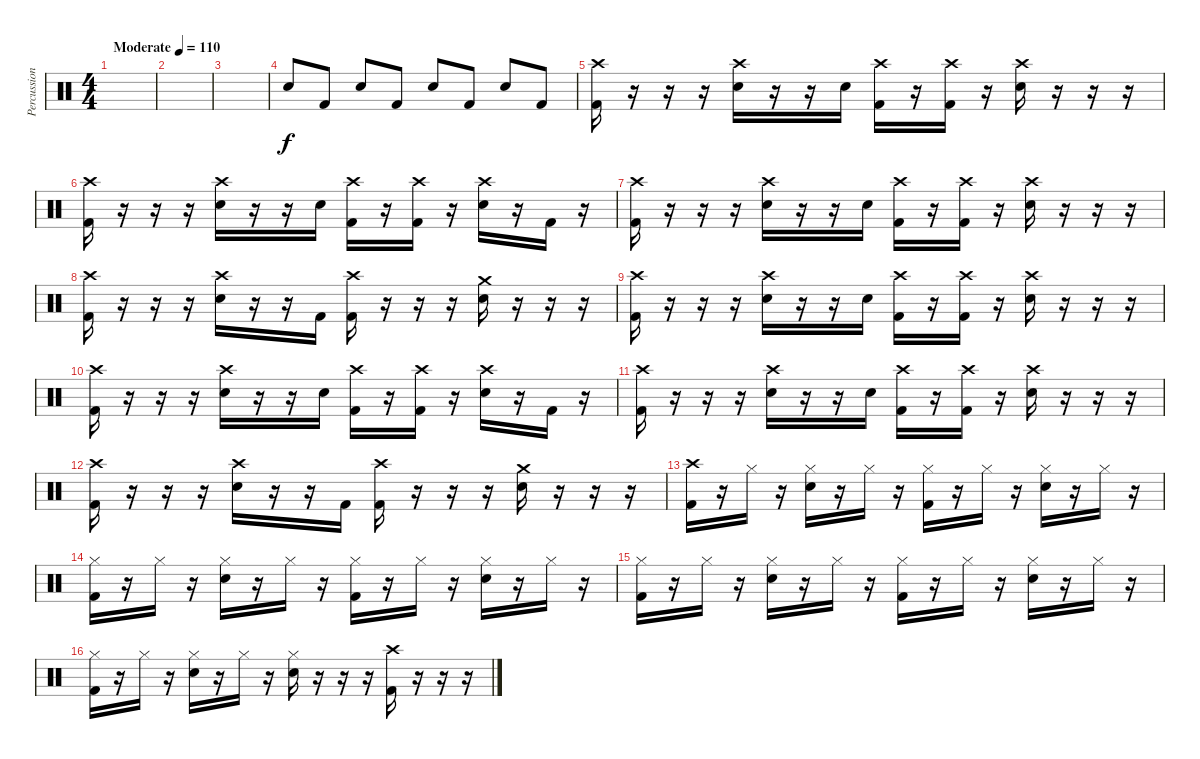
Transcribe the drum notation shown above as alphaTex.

\track ("Percussion" "Percussion") {instrument percussion}
\staff {score}
\articulation defaults
\ts (4 4)
\tempo (110 "Moderate")
\clef neutral
\ks c
|
|
|
"Snare (hit) 2".8 "Kick (hit) 2".8 "Snare (hit) 2".8 "Kick (hit) 2".8 "Snare (hit) 2".8 "Kick (hit) 2".8 "Snare (hit) 2".8 "Kick (hit) 2".8 |
("Crash high (hit)" "Kick (hit) 2").16 r.16 r.16 r.16 ("Crash high (hit)" "Snare (hit) 2").16 r.16 r.16 "Snare (hit) 2".16 ("Crash high (hit)" "Kick (hit) 2").16 r.16 ("Crash high (hit)" "Kick (hit) 2").16 r.16 ("Crash high (hit)" "Snare (hit) 2").16 r.16 r.16 r.16 |
("Crash high (hit)" "Kick (hit) 2").16 r.16 r.16 r.16 ("Crash high (hit)" "Snare (hit) 2").16 r.16 r.16 "Snare (hit) 2".16 ("Crash high (hit)" "Kick (hit) 2").16 r.16 ("Crash high (hit)" "Kick (hit) 2").16 r.16 ("Crash high (hit)" "Snare (hit) 2").16 r.16 "Kick (hit) 2".16 r.16 |
("Crash high (hit)" "Kick (hit) 2").16 r.16 r.16 r.16 ("Crash high (hit)" "Snare (hit) 2").16 r.16 r.16 "Snare (hit) 2".16 ("Crash high (hit)" "Kick (hit) 2").16 r.16 ("Crash high (hit)" "Kick (hit) 2").16 r.16 ("Crash high (hit)" "Snare (hit) 2").16 r.16 r.16 r.16 |
("Crash high (hit)" "Kick (hit) 2").16 r.16 r.16 r.16 ("Crash high (hit)" "Snare (hit) 2").16 r.16 r.16 "Kick (hit) 2".16 ("Crash high (hit)" "Kick (hit) 2").16 r.16 r.16 r.16 ("Crash medium (hit)" "Snare (hit) 2").16 r.16 r.16 r.16 |
("Crash high (hit)" "Kick (hit) 2").16 r.16 r.16 r.16 ("Crash high (hit)" "Snare (hit) 2").16 r.16 r.16 "Snare (hit) 2".16 ("Crash high (hit)" "Kick (hit) 2").16 r.16 ("Crash high (hit)" "Kick (hit) 2").16 r.16 ("Crash high (hit)" "Snare (hit) 2").16 r.16 r.16 r.16 |
("Crash high (hit)" "Kick (hit) 2").16 r.16 r.16 r.16 ("Crash high (hit)" "Snare (hit) 2").16 r.16 r.16 "Snare (hit) 2".16 ("Crash high (hit)" "Kick (hit) 2").16 r.16 ("Crash high (hit)" "Kick (hit) 2").16 r.16 ("Crash high (hit)" "Snare (hit) 2").16 r.16 "Kick (hit) 2".16 r.16 |
("Crash high (hit)" "Kick (hit) 2").16 r.16 r.16 r.16 ("Crash high (hit)" "Snare (hit) 2").16 r.16 r.16 "Snare (hit) 2".16 ("Crash high (hit)" "Kick (hit) 2").16 r.16 ("Crash high (hit)" "Kick (hit) 2").16 r.16 ("Crash high (hit)" "Snare (hit) 2").16 r.16 r.16 r.16 |
("Crash high (hit)" "Kick (hit) 2").16 r.16 r.16 r.16 ("Crash high (hit)" "Snare (hit) 2").16 r.16 r.16 "Kick (hit) 2".16 ("Crash high (hit)" "Kick (hit) 2").16 r.16 r.16 r.16 ("Crash medium (hit)" "Snare (hit) 2").16 r.16 r.16 r.16 |
("Crash high (hit)" "Kick (hit) 2").16 r.16 "Hi-Hat (closed)".16 r.16 ("Hi-Hat (closed)" "Snare (hit) 2").16 r.16 "Hi-Hat (closed)".16 r.16 ("Hi-Hat (closed)" "Kick (hit) 2").16 r.16 "Hi-Hat (closed)".16 r.16 ("Hi-Hat (closed)" "Snare (hit) 2").16 r.16 "Hi-Hat (closed)".16 r.16 |
("Hi-Hat (closed)" "Kick (hit) 2").16 r.16 "Hi-Hat (closed)".16 r.16 ("Hi-Hat (closed)" "Snare (hit) 2").16 r.16 "Hi-Hat (closed)".16 r.16 ("Hi-Hat (closed)" "Kick (hit) 2").16 r.16 "Hi-Hat (closed)".16 r.16 ("Hi-Hat (closed)" "Snare (hit) 2").16 r.16 "Hi-Hat (closed)".16 r.16 |
("Hi-Hat (closed)" "Kick (hit) 2").16 r.16 "Hi-Hat (closed)".16 r.16 ("Hi-Hat (closed)" "Snare (hit) 2").16 r.16 "Hi-Hat (closed)".16 r.16 ("Hi-Hat (closed)" "Kick (hit) 2").16 r.16 "Hi-Hat (closed)".16 r.16 ("Hi-Hat (closed)" "Snare (hit) 2").16 r.16 "Hi-Hat (closed)".16 r.16 |
("Hi-Hat (closed)" "Kick (hit) 2").16 r.16 "Hi-Hat (closed)".16 r.16 ("Hi-Hat (closed)" "Snare (hit) 2").16 r.16 "Hi-Hat (closed)".16 r.16 ("Hi-Hat (closed)" "Snare (hit) 2").16 r.16 r.16 r.16 ("Crash high (hit)" "Kick (hit) 2").16 r.16 r.16 r.16
